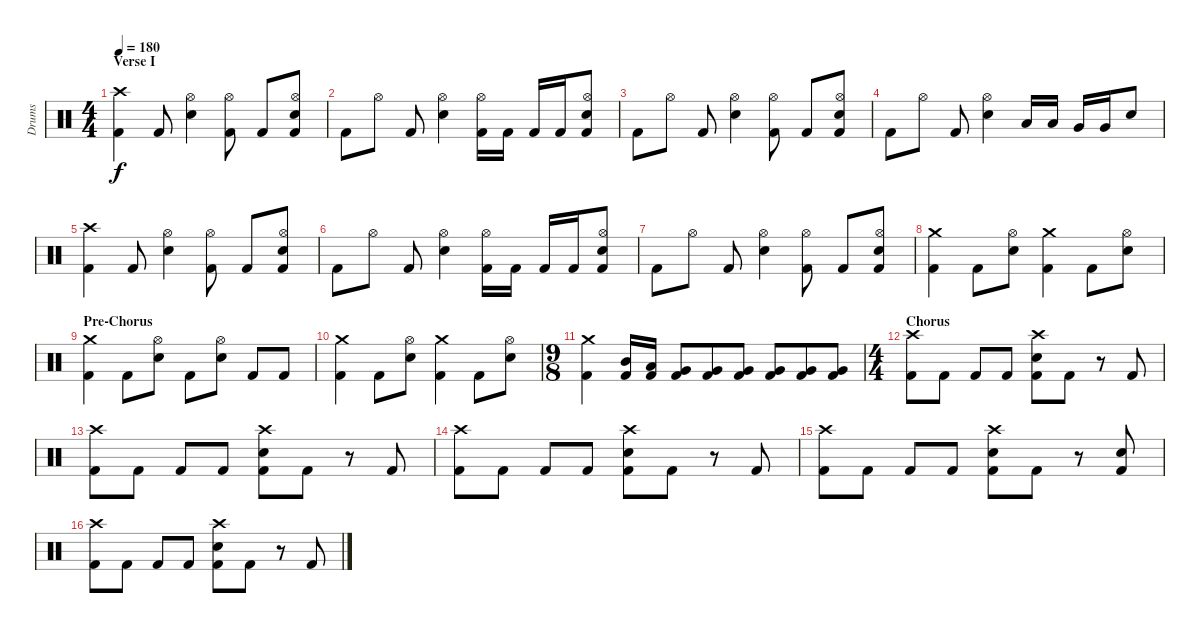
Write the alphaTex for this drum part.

\track ("Drums" "Drums") {instrument percussion}
\staff {score}
\articulation defaults
\ts (4 4)
\section ("" "Verse I")
\tempo 180
\clef neutral
\ks c
("Crash high (hit)" "Kick (hit) 2").4{dy f} "Kick (hit) 2".8 ("Hi-Hat (open)" "Electric Snare (hit)").4 ("Hi-Hat (open)" "Kick (hit) 2").8 "Kick (hit) 2".8 ("Hi-Hat (open)" "Electric Snare (hit)" "Kick (hit) 2").8 |
"Kick (hit) 2".8 "Hi-Hat (open)".8 "Kick (hit) 2".8 ("Hi-Hat (open)" "Electric Snare (hit)").4 ("Hi-Hat (open)" "Kick (hit) 2").16 "Kick (hit) 2".16 "Kick (hit) 2".16 "Kick (hit) 2".16 ("Hi-Hat (open)" "Electric Snare (hit)" "Kick (hit) 2").8 |
"Kick (hit) 2".8 "Hi-Hat (open)".8 "Kick (hit) 2".8 ("Hi-Hat (open)" "Electric Snare (hit)").4 ("Hi-Hat (open)" "Kick (hit) 2").8 "Kick (hit) 2".8 ("Hi-Hat (open)" "Electric Snare (hit)" "Kick (hit) 2").8 |
"Kick (hit) 2".8 "Hi-Hat (open)".8 "Kick (hit) 2".8 ("Hi-Hat (open)" "Electric Snare (hit)").4 "Low Tom (hit)".16 "Low Tom (hit)".16 "Very Low Tom (hit)".16 "Very Low Tom (hit)".16 "Electric Snare (hit)".8 |
("Crash high (hit)" "Kick (hit) 2").4 "Kick (hit) 2".8 ("Hi-Hat (open)" "Electric Snare (hit)").4 ("Hi-Hat (open)" "Kick (hit) 2").8 "Kick (hit) 2".8 ("Hi-Hat (open)" "Electric Snare (hit)" "Kick (hit) 2").8 |
"Kick (hit) 2".8 "Hi-Hat (open)".8 "Kick (hit) 2".8 ("Hi-Hat (open)" "Electric Snare (hit)").4 ("Hi-Hat (open)" "Kick (hit) 2").16 "Kick (hit) 2".16 "Kick (hit) 2".16 "Kick (hit) 2".16 ("Hi-Hat (open)" "Electric Snare (hit)" "Kick (hit) 2").8 |
"Kick (hit) 2".8 "Hi-Hat (open)".8 "Kick (hit) 2".8 ("Hi-Hat (open)" "Electric Snare (hit)").4 ("Hi-Hat (open)" "Kick (hit) 2").8 "Kick (hit) 2".8 ("Hi-Hat (open)" "Electric Snare (hit)" "Kick (hit) 2").8 |
("Crash medium (hit)" "Kick (hit) 2").4 "Kick (hit) 2".8 ("Hi-Hat (open)" "Electric Snare (hit)").8 ("Crash medium (hit)" "Kick (hit) 2").4 "Kick (hit) 2".8 ("Hi-Hat (open)" "Electric Snare (hit)").8 |
\section ("" "Pre-Chorus")
("Crash medium (hit)" "Kick (hit) 2").4 "Kick (hit) 2".8 ("Hi-Hat (open)" "Electric Snare (hit)").8 "Kick (hit) 2".8 ("Hi-Hat (open)" "Electric Snare (hit)").8 "Kick (hit) 2".8 "Kick (hit) 2".8 |
("Crash medium (hit)" "Kick (hit) 2").4 "Kick (hit) 2".8 ("Hi-Hat (open)" "Electric Snare (hit)").8 ("Crash medium (hit)" "Kick (hit) 2").4 "Kick (hit) 2".8 ("Hi-Hat (open)" "Electric Snare (hit)").8 |
\ts (9 8)
("Crash medium (hit)" "Kick (hit) 2").4 ("Mid Tom (hit)" "Kick (hit) 2").16 ("Low Tom (hit)" "Kick (hit) 2").16 ("Very Low Tom (hit)" "Kick (hit) 2").8 ("Very Low Tom (hit)" "Kick (hit) 2").8 ("Very Low Tom (hit)" "Kick (hit) 2").8 ("Very Low Tom (hit)" "Kick (hit) 2").8 ("Very Low Tom (hit)" "Kick (hit) 2").8 ("Very Low Tom (hit)" "Kick (hit) 2").8 |
\ts (4 4)
\section ("" "Chorus")
("Crash high (hit)" "Kick (hit) 2").8 "Kick (hit) 2".8 "Kick (hit) 2".8 "Kick (hit) 2".8 ("Crash high (hit)" "Electric Snare (hit)" "Kick (hit) 2").8 "Kick (hit) 2".8 r.8 "Kick (hit) 2".8 |
("Crash high (hit)" "Kick (hit) 2").8 "Kick (hit) 2".8 "Kick (hit) 2".8 "Kick (hit) 2".8 ("Crash high (hit)" "Electric Snare (hit)" "Kick (hit) 2").8 "Kick (hit) 2".8 r.8 "Kick (hit) 2".8 |
("Crash high (hit)" "Kick (hit) 2").8 "Kick (hit) 2".8 "Kick (hit) 2".8 "Kick (hit) 2".8 ("Crash high (hit)" "Electric Snare (hit)" "Kick (hit) 2").8 "Kick (hit) 2".8 r.8 "Kick (hit) 2".8 |
("Crash high (hit)" "Kick (hit) 2").8 "Kick (hit) 2".8 "Kick (hit) 2".8 "Kick (hit) 2".8 ("Crash high (hit)" "Electric Snare (hit)" "Kick (hit) 2").8 "Kick (hit) 2".8 r.8 ("Electric Snare (hit)" "Kick (hit) 2").8 |
("Crash high (hit)" "Kick (hit) 2").8 "Kick (hit) 2".8 "Kick (hit) 2".8 "Kick (hit) 2".8 ("Crash high (hit)" "Electric Snare (hit)" "Kick (hit) 2").8 "Kick (hit) 2".8 r.8 "Kick (hit) 2".8
